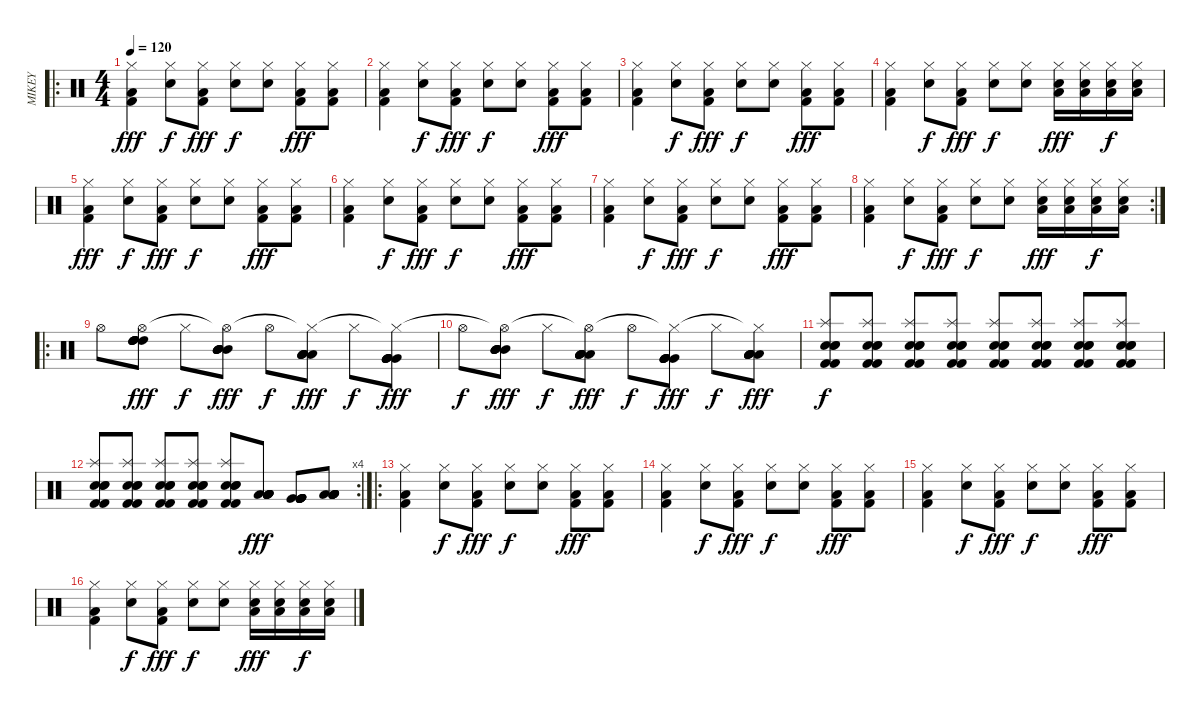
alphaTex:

\track ("MIKEY" "MIKEY") {instrument percussion}
\staff {score}
\articulation defaults
\ro
\ts (4 4)
\tempo 120
\clef neutral
\ks c
("Hi-Hat (closed)" "Low Floor Tom (hit)" "Kick (hit) 2").4{dy fff} ("Hi-Hat (closed)" "Electric Snare (hit)").8{dy f} ("Hi-Hat (closed)" "Low Floor Tom (hit)" "Kick (hit) 2").8{dy fff} ("Hi-Hat (closed)" "Electric Snare (hit)").8{dy f} ("Hi-Hat (closed)" "Electric Snare (hit)").8 ("Hi-Hat (closed)" "Low Floor Tom (hit)" "Kick (hit) 2").8{dy fff} ("Hi-Hat (closed)" "Low Floor Tom (hit)" "Kick (hit) 2").8 |
("Hi-Hat (closed)" "Low Floor Tom (hit)" "Kick (hit) 2").4 ("Hi-Hat (closed)" "Electric Snare (hit)").8{dy f} ("Hi-Hat (closed)" "Low Floor Tom (hit)" "Kick (hit) 2").8{dy fff} ("Hi-Hat (closed)" "Electric Snare (hit)").8{dy f} ("Hi-Hat (closed)" "Electric Snare (hit)").8 ("Hi-Hat (closed)" "Low Floor Tom (hit)" "Kick (hit) 2").8{dy fff} ("Hi-Hat (closed)" "Low Floor Tom (hit)" "Kick (hit) 2").8 |
("Hi-Hat (closed)" "Low Floor Tom (hit)" "Kick (hit) 2").4 ("Hi-Hat (closed)" "Electric Snare (hit)").8{dy f} ("Hi-Hat (closed)" "Low Floor Tom (hit)" "Kick (hit) 2").8{dy fff} ("Hi-Hat (closed)" "Electric Snare (hit)").8{dy f} ("Hi-Hat (closed)" "Electric Snare (hit)").8 ("Hi-Hat (closed)" "Low Floor Tom (hit)" "Kick (hit) 2").8{dy fff} ("Hi-Hat (closed)" "Low Floor Tom (hit)" "Kick (hit) 2").8 |
("Hi-Hat (closed)" "Low Floor Tom (hit)" "Kick (hit) 2").4 ("Hi-Hat (closed)" "Electric Snare (hit)").8{dy f} ("Hi-Hat (closed)" "Low Floor Tom (hit)" "Kick (hit) 2").8{dy fff} ("Hi-Hat (closed)" "Electric Snare (hit)").8{dy f} ("Hi-Hat (closed)" "Electric Snare (hit)").8 ("Hi-Hat (closed)" "Low Floor Tom (hit)" "Electric Snare (hit)").16{dy fff} ("Hi-Hat (closed)" "Low Floor Tom (hit)" "Electric Snare (hit)").16 ("Hi-Hat (closed)" "Low Floor Tom (hit)" "Electric Snare (hit)").16{dy f} ("Hi-Hat (closed)" "Low Floor Tom (hit)" "Electric Snare (hit)").16 |
("Hi-Hat (closed)" "Low Floor Tom (hit)" "Kick (hit) 2").4{dy fff} ("Hi-Hat (closed)" "Electric Snare (hit)").8{dy f} ("Hi-Hat (closed)" "Low Floor Tom (hit)" "Kick (hit) 2").8{dy fff} ("Hi-Hat (closed)" "Electric Snare (hit)").8{dy f} ("Hi-Hat (closed)" "Electric Snare (hit)").8 ("Hi-Hat (closed)" "Low Floor Tom (hit)" "Kick (hit) 2").8{dy fff} ("Hi-Hat (closed)" "Low Floor Tom (hit)" "Kick (hit) 2").8 |
("Hi-Hat (closed)" "Low Floor Tom (hit)" "Kick (hit) 2").4 ("Hi-Hat (closed)" "Electric Snare (hit)").8{dy f} ("Hi-Hat (closed)" "Low Floor Tom (hit)" "Kick (hit) 2").8{dy fff} ("Hi-Hat (closed)" "Electric Snare (hit)").8{dy f} ("Hi-Hat (closed)" "Electric Snare (hit)").8 ("Hi-Hat (closed)" "Low Floor Tom (hit)" "Kick (hit) 2").8{dy fff} ("Hi-Hat (closed)" "Low Floor Tom (hit)" "Kick (hit) 2").8 |
("Hi-Hat (closed)" "Low Floor Tom (hit)" "Kick (hit) 2").4 ("Hi-Hat (closed)" "Electric Snare (hit)").8{dy f} ("Hi-Hat (closed)" "Low Floor Tom (hit)" "Kick (hit) 2").8{dy fff} ("Hi-Hat (closed)" "Electric Snare (hit)").8{dy f} ("Hi-Hat (closed)" "Electric Snare (hit)").8 ("Hi-Hat (closed)" "Low Floor Tom (hit)" "Kick (hit) 2").8{dy fff} ("Hi-Hat (closed)" "Low Floor Tom (hit)" "Kick (hit) 2").8 |
\rc 2
("Hi-Hat (closed)" "Low Floor Tom (hit)" "Kick (hit) 2").4 ("Hi-Hat (closed)" "Electric Snare (hit)").8{dy f} ("Hi-Hat (closed)" "Low Floor Tom (hit)" "Kick (hit) 2").8{dy fff} ("Hi-Hat (closed)" "Electric Snare (hit)").8{dy f} ("Hi-Hat (closed)" "Electric Snare (hit)").8 ("Hi-Hat (closed)" "Low Floor Tom (hit)" "Electric Snare (hit)").16{dy fff} ("Hi-Hat (closed)" "Low Floor Tom (hit)" "Electric Snare (hit)").16 ("Hi-Hat (closed)" "Low Floor Tom (hit)" "Electric Snare (hit)").16{dy f} ("Hi-Hat (closed)" "Low Floor Tom (hit)" "Electric Snare (hit)").16 |
\ro "Hi-Hat (open)".8
("High Tom (hit)" "High Tom (hit)" "High Tom (hit)" "High Tom (hit)" "High Tom (hit)" "Hi-Hat (open)").8{dy fff} "Hi-Hat (closed)".8{dy f} ("Mid Tom (hit)" "Mid Tom (hit)" "Mid Tom (hit)" "Mid Tom (hit)" "Mid Tom (hit)" "Hi-Hat (open)"{t}).8{dy fff} "Hi-Hat (open)".8{dy f} ("Low Tom (hit)" "Low Tom (hit)" "Low Tom (hit)" "Low Tom (hit)" "Low Tom (hit)" "Hi-Hat (closed)"{t}).8{dy fff} "Hi-Hat (closed)".8{dy f} ("Very Low Tom (hit)" "Very Low Tom (hit)" "Very Low Tom (hit)" "Very Low Tom (hit)" "Very Low Tom (hit)" "Hi-Hat (closed)"{t}).8{dy fff} |
"Hi-Hat (open)".8{dy f} ("Mid Tom (hit)" "Mid Tom (hit)" "Mid Tom (hit)" "Mid Tom (hit)" "Mid Tom (hit)" "Hi-Hat (open)"{t}).8{dy fff} "Hi-Hat (closed)".8{dy f} ("Low Tom (hit)" "Low Tom (hit)" "Low Tom (hit)" "Low Tom (hit)" "Low Tom (hit)" "Hi-Hat (open)"{t}).8{dy fff} "Hi-Hat (open)".8{dy f} ("Very Low Tom (hit)" "Very Low Tom (hit)" "Very Low Tom (hit)" "Very Low Tom (hit)" "Very Low Tom (hit)" "Hi-Hat (closed)"{t}).8{dy fff} "Hi-Hat (closed)".8{dy f} ("Low Floor Tom (hit)" "Low Floor Tom (hit)" "Low Floor Tom (hit)" "Low Floor Tom (hit)" "Low Floor Tom (hit)" "Hi-Hat (closed)"{t}).8{dy fff} |
("Splash (hit)" "Kick (hit) 2" "Snare (hit) 2" "Kick (hit) 2" "Snare (hit) 2" "Electric Snare (hit)").8{dy f} ("Splash (hit)" "Kick (hit) 2" "Snare (hit) 2" "Kick (hit) 2" "Snare (hit) 2" "Electric Snare (hit)").8 ("Splash (hit)" "Kick (hit) 2" "Snare (hit) 2" "Kick (hit) 2" "Snare (hit) 2" "Electric Snare (hit)").8 ("Splash (hit)" "Kick (hit) 2" "Snare (hit) 2" "Kick (hit) 2" "Snare (hit) 2" "Electric Snare (hit)").8 ("Splash (hit)" "Kick (hit) 2" "Snare (hit) 2" "Kick (hit) 2" "Snare (hit) 2" "Electric Snare (hit)").8 ("Splash (hit)" "Kick (hit) 2" "Snare (hit) 2" "Kick (hit) 2" "Snare (hit) 2" "Electric Snare (hit)").8 ("Splash (hit)" "Kick (hit) 2" "Snare (hit) 2" "Kick (hit) 2" "Snare (hit) 2" "Electric Snare (hit)").8 ("Splash (hit)" "Kick (hit) 2" "Snare (hit) 2" "Kick (hit) 2" "Snare (hit) 2" "Electric Snare (hit)").8 |
\rc 4
("Splash (hit)" "Kick (hit) 2" "Snare (hit) 2" "Kick (hit) 2" "Snare (hit) 2" "Electric Snare (hit)").8 ("Splash (hit)" "Kick (hit) 2" "Snare (hit) 2" "Kick (hit) 2" "Snare (hit) 2" "Electric Snare (hit)").8 ("Splash (hit)" "Kick (hit) 2" "Snare (hit) 2" "Kick (hit) 2" "Snare (hit) 2" "Electric Snare (hit)").8 ("Splash (hit)" "Kick (hit) 2" "Snare (hit) 2" "Kick (hit) 2" "Snare (hit) 2" "Electric Snare (hit)").8 ("Splash (hit)" "Kick (hit) 2" "Snare (hit) 2" "Kick (hit) 2" "Snare (hit) 2" "Electric Snare (hit)").8 ("Low Tom (hit)" "Low Tom (hit)" "Low Tom (hit)" "Low Tom (hit)" "Low Tom (hit)" "Low Tom (hit)").8{dy fff} ("Very Low Tom (hit)" "Very Low Tom (hit)" "Very Low Tom (hit)" "Very Low Tom (hit)" "Very Low Tom (hit)" "Very Low Tom (hit)").8 ("Low Floor Tom (hit)" "Low Floor Tom (hit)" "Low Floor Tom (hit)" "Low Floor Tom (hit)" "Low Floor Tom (hit)" "Low Floor Tom (hit)").8 |
\ro
("Hi-Hat (closed)" "Low Floor Tom (hit)" "Kick (hit) 2").4 ("Hi-Hat (closed)" "Electric Snare (hit)").8{dy f} ("Hi-Hat (closed)" "Low Floor Tom (hit)" "Kick (hit) 2").8{dy fff} ("Hi-Hat (closed)" "Electric Snare (hit)").8{dy f} ("Hi-Hat (closed)" "Electric Snare (hit)").8 ("Hi-Hat (closed)" "Low Floor Tom (hit)" "Kick (hit) 2").8{dy fff} ("Hi-Hat (closed)" "Low Floor Tom (hit)" "Kick (hit) 2").8 |
("Hi-Hat (closed)" "Low Floor Tom (hit)" "Kick (hit) 2").4 ("Hi-Hat (closed)" "Electric Snare (hit)").8{dy f} ("Hi-Hat (closed)" "Low Floor Tom (hit)" "Kick (hit) 2").8{dy fff} ("Hi-Hat (closed)" "Electric Snare (hit)").8{dy f} ("Hi-Hat (closed)" "Electric Snare (hit)").8 ("Hi-Hat (closed)" "Low Floor Tom (hit)" "Kick (hit) 2").8{dy fff} ("Hi-Hat (closed)" "Low Floor Tom (hit)" "Kick (hit) 2").8 |
("Hi-Hat (closed)" "Low Floor Tom (hit)" "Kick (hit) 2").4 ("Hi-Hat (closed)" "Electric Snare (hit)").8{dy f} ("Hi-Hat (closed)" "Low Floor Tom (hit)" "Kick (hit) 2").8{dy fff} ("Hi-Hat (closed)" "Electric Snare (hit)").8{dy f} ("Hi-Hat (closed)" "Electric Snare (hit)").8 ("Hi-Hat (closed)" "Low Floor Tom (hit)" "Kick (hit) 2").8{dy fff} ("Hi-Hat (closed)" "Low Floor Tom (hit)" "Kick (hit) 2").8 |
("Hi-Hat (closed)" "Low Floor Tom (hit)" "Kick (hit) 2").4 ("Hi-Hat (closed)" "Electric Snare (hit)").8{dy f} ("Hi-Hat (closed)" "Low Floor Tom (hit)" "Kick (hit) 2").8{dy fff} ("Hi-Hat (closed)" "Electric Snare (hit)").8{dy f} ("Hi-Hat (closed)" "Electric Snare (hit)").8 ("Hi-Hat (closed)" "Low Floor Tom (hit)" "Electric Snare (hit)").16{dy fff} ("Hi-Hat (closed)" "Low Floor Tom (hit)" "Electric Snare (hit)").16 ("Hi-Hat (closed)" "Low Floor Tom (hit)" "Electric Snare (hit)").16{dy f} ("Hi-Hat (closed)" "Low Floor Tom (hit)" "Electric Snare (hit)").16
